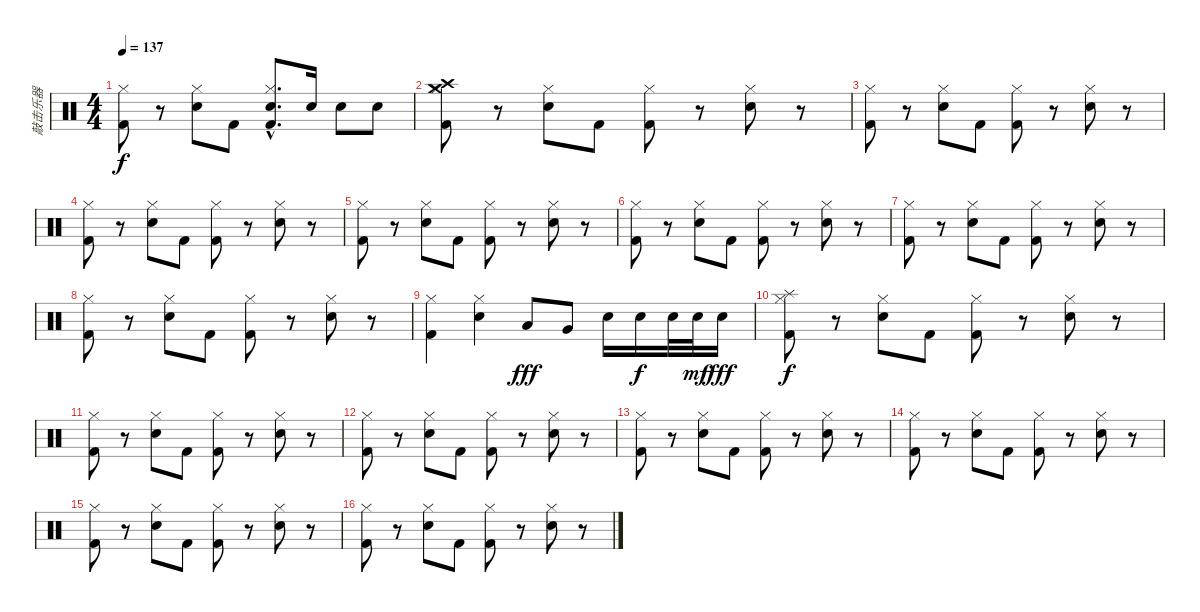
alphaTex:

\track ("敲击乐器" "敲击乐器") {instrument percussion}
\staff {score}
\articulation defaults
\ts (4 4)
\tempo 137
\clef neutral
\ks c
("Kick (hit) 2" "Hi-Hat (closed)").8{dy f} r.8 ("Snare (hit) 2" "Hi-Hat (closed)").8 "Kick (hit) 2".8 ("Kick (hit) 2"{hac} "Snare (hit) 2"{hac} "Hi-Hat (closed)"{hac}).8{d} "Snare (hit) 2".16 "Snare (hit) 2".8 "Snare (hit) 2".8 |
("Crash high (hit)" "Crash medium (hit)" "Kick (hit) 2" "Hi-Hat (closed)").8 r.8 ("Snare (hit) 2" "Hi-Hat (closed)").8 "Kick (hit) 2".8 ("Kick (hit) 2" "Hi-Hat (closed)").8 r.8 ("Snare (hit) 2" "Hi-Hat (closed)").8 r.8 |
("Kick (hit) 2" "Hi-Hat (closed)").8 r.8 ("Snare (hit) 2" "Hi-Hat (closed)").8 "Kick (hit) 2".8 ("Kick (hit) 2" "Hi-Hat (closed)").8 r.8 ("Snare (hit) 2" "Hi-Hat (closed)").8 r.8 |
("Kick (hit) 2" "Hi-Hat (closed)").8 r.8 ("Snare (hit) 2" "Hi-Hat (closed)").8 "Kick (hit) 2".8 ("Kick (hit) 2" "Hi-Hat (closed)").8 r.8 ("Snare (hit) 2" "Hi-Hat (closed)").8 r.8 |
("Kick (hit) 2" "Hi-Hat (closed)").8 r.8 ("Snare (hit) 2" "Hi-Hat (closed)").8 "Kick (hit) 2".8 ("Kick (hit) 2" "Hi-Hat (closed)").8 r.8 ("Snare (hit) 2" "Hi-Hat (closed)").8 r.8 |
("Kick (hit) 2" "Hi-Hat (closed)").8 r.8 ("Snare (hit) 2" "Hi-Hat (closed)").8 "Kick (hit) 2".8 ("Kick (hit) 2" "Hi-Hat (closed)").8 r.8 ("Snare (hit) 2" "Hi-Hat (closed)").8 r.8 |
("Kick (hit) 2" "Hi-Hat (closed)").8 r.8 ("Snare (hit) 2" "Hi-Hat (closed)").8 "Kick (hit) 2".8 ("Kick (hit) 2" "Hi-Hat (closed)").8 r.8 ("Snare (hit) 2" "Hi-Hat (closed)").8 r.8 |
("Kick (hit) 2" "Hi-Hat (closed)").8 r.8 ("Snare (hit) 2" "Hi-Hat (closed)").8 "Kick (hit) 2".8 ("Kick (hit) 2" "Hi-Hat (closed)").8 r.8 ("Snare (hit) 2" "Hi-Hat (closed)").8 r.8 |
("Kick (hit) 2" "Hi-Hat (closed)").4 ("Snare (hit) 2" "Hi-Hat (closed)").4 "Low Tom (hit)".8{dy fff} "Very Low Tom (hit)".8 "Snare (hit) 2".16 "Snare (hit) 2".16{dy f} "Snare (hit) 2".32 "Snare (hit) 2".32{dy mf} "Snare (hit) 2".16{dy fff} |
("Splash (hit)" "Kick (hit) 2" "Hi-Hat (closed)").8{dy f} r.8 ("Snare (hit) 2" "Hi-Hat (closed)").8 "Kick (hit) 2".8 ("Kick (hit) 2" "Hi-Hat (closed)").8 r.8 ("Snare (hit) 2" "Hi-Hat (closed)").8 r.8 |
("Kick (hit) 2" "Hi-Hat (closed)").8 r.8 ("Snare (hit) 2" "Hi-Hat (closed)").8 "Kick (hit) 2".8 ("Kick (hit) 2" "Hi-Hat (closed)").8 r.8 ("Snare (hit) 2" "Hi-Hat (closed)").8 r.8 |
("Kick (hit) 2" "Hi-Hat (closed)").8 r.8 ("Snare (hit) 2" "Hi-Hat (closed)").8 "Kick (hit) 2".8 ("Kick (hit) 2" "Hi-Hat (closed)").8 r.8 ("Snare (hit) 2" "Hi-Hat (closed)").8 r.8 |
("Kick (hit) 2" "Hi-Hat (closed)").8 r.8 ("Snare (hit) 2" "Hi-Hat (closed)").8 "Kick (hit) 2".8 ("Kick (hit) 2" "Hi-Hat (closed)").8 r.8 ("Snare (hit) 2" "Hi-Hat (closed)").8 r.8 |
("Kick (hit) 2" "Hi-Hat (closed)").8 r.8 ("Snare (hit) 2" "Hi-Hat (closed)").8 "Kick (hit) 2".8 ("Kick (hit) 2" "Hi-Hat (closed)").8 r.8 ("Snare (hit) 2" "Hi-Hat (closed)").8 r.8 |
("Kick (hit) 2" "Hi-Hat (closed)").8 r.8 ("Snare (hit) 2" "Hi-Hat (closed)").8 "Kick (hit) 2".8 ("Kick (hit) 2" "Hi-Hat (closed)").8 r.8 ("Snare (hit) 2" "Hi-Hat (closed)").8 r.8 |
("Kick (hit) 2" "Hi-Hat (closed)").8 r.8 ("Snare (hit) 2" "Hi-Hat (closed)").8 "Kick (hit) 2".8 ("Kick (hit) 2" "Hi-Hat (closed)").8 r.8 ("Snare (hit) 2" "Hi-Hat (closed)").8 r.8
